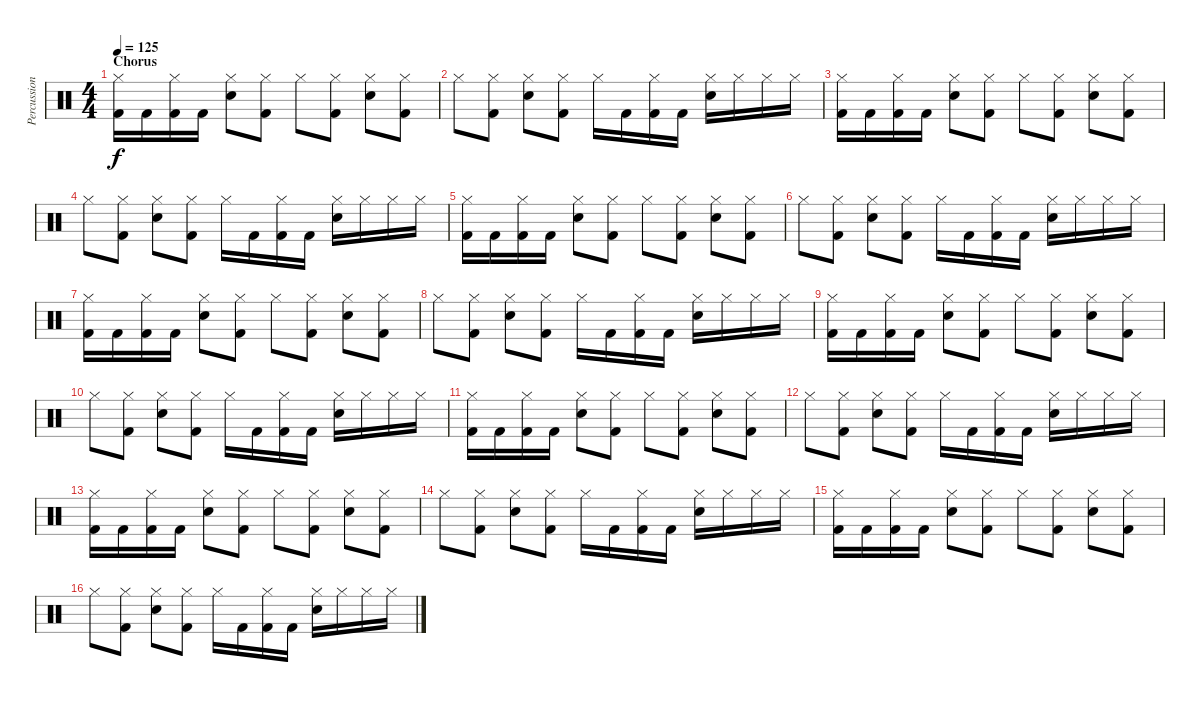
\track ("Percussion" "Percussion") {instrument percussion}
\staff {score}
\articulation defaults
\ts (4 4)
\section ("" "Chorus")
\tempo 125
\clef neutral
\ks c
("Hi-Hat (closed)" "Kick (hit) 2").16{dy f} "Kick (hit) 2".16 ("Hi-Hat (closed)" "Kick (hit) 2").16 "Kick (hit) 2".16 ("Hi-Hat (closed)" "Electric Snare (hit)").8 ("Hi-Hat (closed)" "Kick (hit) 2").8 "Hi-Hat (closed)".8 ("Hi-Hat (closed)" "Kick (hit) 2").8 ("Hi-Hat (closed)" "Electric Snare (hit)").8 ("Hi-Hat (closed)" "Kick (hit) 2").8 |
"Hi-Hat (closed)".8 ("Hi-Hat (closed)" "Kick (hit) 2").8 ("Hi-Hat (closed)" "Electric Snare (hit)").8 ("Hi-Hat (closed)" "Kick (hit) 2").8 "Hi-Hat (closed)".16 "Kick (hit) 2".16 ("Hi-Hat (closed)" "Kick (hit) 2").16 "Kick (hit) 2".16 ("Hi-Hat (closed)" "Electric Snare (hit)").16 "Hi-Hat (closed)".16 "Hi-Hat (closed)".16 "Hi-Hat (closed)".16 |
("Hi-Hat (closed)" "Kick (hit) 2").16 "Kick (hit) 2".16 ("Hi-Hat (closed)" "Kick (hit) 2").16 "Kick (hit) 2".16 ("Hi-Hat (closed)" "Electric Snare (hit)").8 ("Hi-Hat (closed)" "Kick (hit) 2").8 "Hi-Hat (closed)".8 ("Hi-Hat (closed)" "Kick (hit) 2").8 ("Hi-Hat (closed)" "Electric Snare (hit)").8 ("Hi-Hat (closed)" "Kick (hit) 2").8 |
"Hi-Hat (closed)".8 ("Hi-Hat (closed)" "Kick (hit) 2").8 ("Hi-Hat (closed)" "Electric Snare (hit)").8 ("Hi-Hat (closed)" "Kick (hit) 2").8 "Hi-Hat (closed)".16 "Kick (hit) 2".16 ("Hi-Hat (closed)" "Kick (hit) 2").16 "Kick (hit) 2".16 ("Hi-Hat (closed)" "Electric Snare (hit)").16 "Hi-Hat (closed)".16 "Hi-Hat (closed)".16 "Hi-Hat (closed)".16 |
("Hi-Hat (closed)" "Kick (hit) 2").16 "Kick (hit) 2".16 ("Hi-Hat (closed)" "Kick (hit) 2").16 "Kick (hit) 2".16 ("Hi-Hat (closed)" "Electric Snare (hit)").8 ("Hi-Hat (closed)" "Kick (hit) 2").8 "Hi-Hat (closed)".8 ("Hi-Hat (closed)" "Kick (hit) 2").8 ("Hi-Hat (closed)" "Electric Snare (hit)").8 ("Hi-Hat (closed)" "Kick (hit) 2").8 |
"Hi-Hat (closed)".8 ("Hi-Hat (closed)" "Kick (hit) 2").8 ("Hi-Hat (closed)" "Electric Snare (hit)").8 ("Hi-Hat (closed)" "Kick (hit) 2").8 "Hi-Hat (closed)".16 "Kick (hit) 2".16 ("Hi-Hat (closed)" "Kick (hit) 2").16 "Kick (hit) 2".16 ("Hi-Hat (closed)" "Electric Snare (hit)").16 "Hi-Hat (closed)".16 "Hi-Hat (closed)".16 "Hi-Hat (closed)".16 |
("Hi-Hat (closed)" "Kick (hit) 2").16 "Kick (hit) 2".16 ("Hi-Hat (closed)" "Kick (hit) 2").16 "Kick (hit) 2".16 ("Hi-Hat (closed)" "Electric Snare (hit)").8 ("Hi-Hat (closed)" "Kick (hit) 2").8 "Hi-Hat (closed)".8 ("Hi-Hat (closed)" "Kick (hit) 2").8 ("Hi-Hat (closed)" "Electric Snare (hit)").8 ("Hi-Hat (closed)" "Kick (hit) 2").8 |
"Hi-Hat (closed)".8 ("Hi-Hat (closed)" "Kick (hit) 2").8 ("Hi-Hat (closed)" "Electric Snare (hit)").8 ("Hi-Hat (closed)" "Kick (hit) 2").8 "Hi-Hat (closed)".16 "Kick (hit) 2".16 ("Hi-Hat (closed)" "Kick (hit) 2").16 "Kick (hit) 2".16 ("Hi-Hat (closed)" "Electric Snare (hit)").16 "Hi-Hat (closed)".16 "Hi-Hat (closed)".16 "Hi-Hat (closed)".16 |
("Hi-Hat (closed)" "Kick (hit) 2").16 "Kick (hit) 2".16 ("Hi-Hat (closed)" "Kick (hit) 2").16 "Kick (hit) 2".16 ("Hi-Hat (closed)" "Electric Snare (hit)").8 ("Hi-Hat (closed)" "Kick (hit) 2").8 "Hi-Hat (closed)".8 ("Hi-Hat (closed)" "Kick (hit) 2").8 ("Hi-Hat (closed)" "Electric Snare (hit)").8 ("Hi-Hat (closed)" "Kick (hit) 2").8 |
"Hi-Hat (closed)".8 ("Hi-Hat (closed)" "Kick (hit) 2").8 ("Hi-Hat (closed)" "Electric Snare (hit)").8 ("Hi-Hat (closed)" "Kick (hit) 2").8 "Hi-Hat (closed)".16 "Kick (hit) 2".16 ("Hi-Hat (closed)" "Kick (hit) 2").16 "Kick (hit) 2".16 ("Hi-Hat (closed)" "Electric Snare (hit)").16 "Hi-Hat (closed)".16 "Hi-Hat (closed)".16 "Hi-Hat (closed)".16 |
("Hi-Hat (closed)" "Kick (hit) 2").16 "Kick (hit) 2".16 ("Hi-Hat (closed)" "Kick (hit) 2").16 "Kick (hit) 2".16 ("Hi-Hat (closed)" "Electric Snare (hit)").8 ("Hi-Hat (closed)" "Kick (hit) 2").8 "Hi-Hat (closed)".8 ("Hi-Hat (closed)" "Kick (hit) 2").8 ("Hi-Hat (closed)" "Electric Snare (hit)").8 ("Hi-Hat (closed)" "Kick (hit) 2").8 |
"Hi-Hat (closed)".8 ("Hi-Hat (closed)" "Kick (hit) 2").8 ("Hi-Hat (closed)" "Electric Snare (hit)").8 ("Hi-Hat (closed)" "Kick (hit) 2").8 "Hi-Hat (closed)".16 "Kick (hit) 2".16 ("Hi-Hat (closed)" "Kick (hit) 2").16 "Kick (hit) 2".16 ("Hi-Hat (closed)" "Electric Snare (hit)").16 "Hi-Hat (closed)".16 "Hi-Hat (closed)".16 "Hi-Hat (closed)".16 |
("Hi-Hat (closed)" "Kick (hit) 2").16 "Kick (hit) 2".16 ("Hi-Hat (closed)" "Kick (hit) 2").16 "Kick (hit) 2".16 ("Hi-Hat (closed)" "Electric Snare (hit)").8 ("Hi-Hat (closed)" "Kick (hit) 2").8 "Hi-Hat (closed)".8 ("Hi-Hat (closed)" "Kick (hit) 2").8 ("Hi-Hat (closed)" "Electric Snare (hit)").8 ("Hi-Hat (closed)" "Kick (hit) 2").8 |
"Hi-Hat (closed)".8 ("Hi-Hat (closed)" "Kick (hit) 2").8 ("Hi-Hat (closed)" "Electric Snare (hit)").8 ("Hi-Hat (closed)" "Kick (hit) 2").8 "Hi-Hat (closed)".16 "Kick (hit) 2".16 ("Hi-Hat (closed)" "Kick (hit) 2").16 "Kick (hit) 2".16 ("Hi-Hat (closed)" "Electric Snare (hit)").16 "Hi-Hat (closed)".16 "Hi-Hat (closed)".16 "Hi-Hat (closed)".16 |
("Hi-Hat (closed)" "Kick (hit) 2").16 "Kick (hit) 2".16 ("Hi-Hat (closed)" "Kick (hit) 2").16 "Kick (hit) 2".16 ("Hi-Hat (closed)" "Electric Snare (hit)").8 ("Hi-Hat (closed)" "Kick (hit) 2").8 "Hi-Hat (closed)".8 ("Hi-Hat (closed)" "Kick (hit) 2").8 ("Hi-Hat (closed)" "Electric Snare (hit)").8 ("Hi-Hat (closed)" "Kick (hit) 2").8 |
"Hi-Hat (closed)".8 ("Hi-Hat (closed)" "Kick (hit) 2").8 ("Hi-Hat (closed)" "Electric Snare (hit)").8 ("Hi-Hat (closed)" "Kick (hit) 2").8 "Hi-Hat (closed)".16 "Kick (hit) 2".16 ("Hi-Hat (closed)" "Kick (hit) 2").16 "Kick (hit) 2".16 ("Hi-Hat (closed)" "Electric Snare (hit)").16 "Hi-Hat (closed)".16 "Hi-Hat (closed)".16 "Hi-Hat (closed)".16
